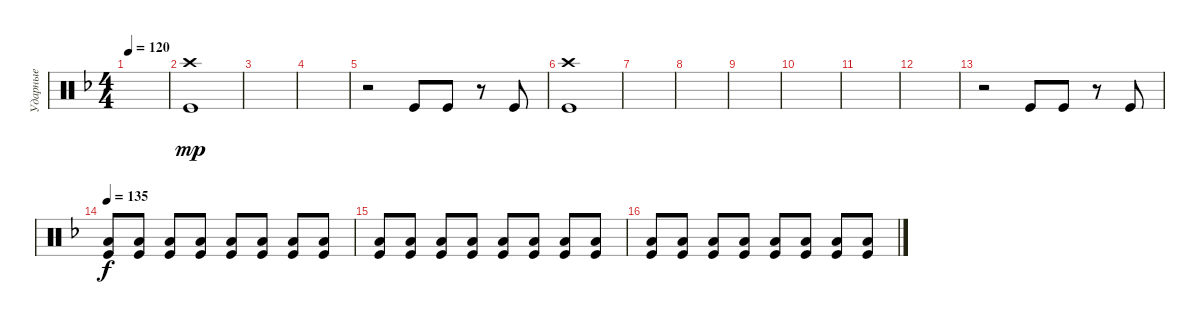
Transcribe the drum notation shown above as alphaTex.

\track ("Ударные" "Ударные") {instrument percussion}
\staff {score}
\articulation defaults
\ts (4 4)
\tempo 120
\clef neutral
\ks dminor
|
("Kick (hit)" "Crash high (hit)").1{dy mp} |
|
|
r.2 "Kick (hit)".8 "Kick (hit)".8 r.8 "Kick (hit)".8 |
("Crash high (hit)" "Kick (hit)").1 |
|
|
|
|
|
|
r.2 "Kick (hit)".8 "Kick (hit)".8 r.8 "Kick (hit)".8 |
\tempo 135
("Kick (hit)" "Low Floor Tom (hit)").8{dy f volume 0} ("Kick (hit)" "Low Floor Tom (hit)").8{volume 14} ("Kick (hit)" "Low Floor Tom (hit)").8 ("Kick (hit)" "Low Floor Tom (hit)").8 ("Kick (hit)" "Low Floor Tom (hit)").8 ("Kick (hit)" "Low Floor Tom (hit)").8 ("Kick (hit)" "Low Floor Tom (hit)").8 ("Kick (hit)" "Low Floor Tom (hit)").8 |
("Kick (hit)" "Low Floor Tom (hit)").8 ("Kick (hit)" "Low Floor Tom (hit)").8 ("Kick (hit)" "Low Floor Tom (hit)").8 ("Kick (hit)" "Low Floor Tom (hit)").8 ("Kick (hit)" "Low Floor Tom (hit)").8 ("Kick (hit)" "Low Floor Tom (hit)").8 ("Kick (hit)" "Low Floor Tom (hit)").8 ("Kick (hit)" "Low Floor Tom (hit)").8 |
("Kick (hit)" "Low Floor Tom (hit)").8 ("Kick (hit)" "Low Floor Tom (hit)").8 ("Kick (hit)" "Low Floor Tom (hit)").8 ("Kick (hit)" "Low Floor Tom (hit)").8 ("Kick (hit)" "Low Floor Tom (hit)").8 ("Kick (hit)" "Low Floor Tom (hit)").8 ("Kick (hit)" "Low Floor Tom (hit)").8 ("Kick (hit)" "Low Floor Tom (hit)").8
